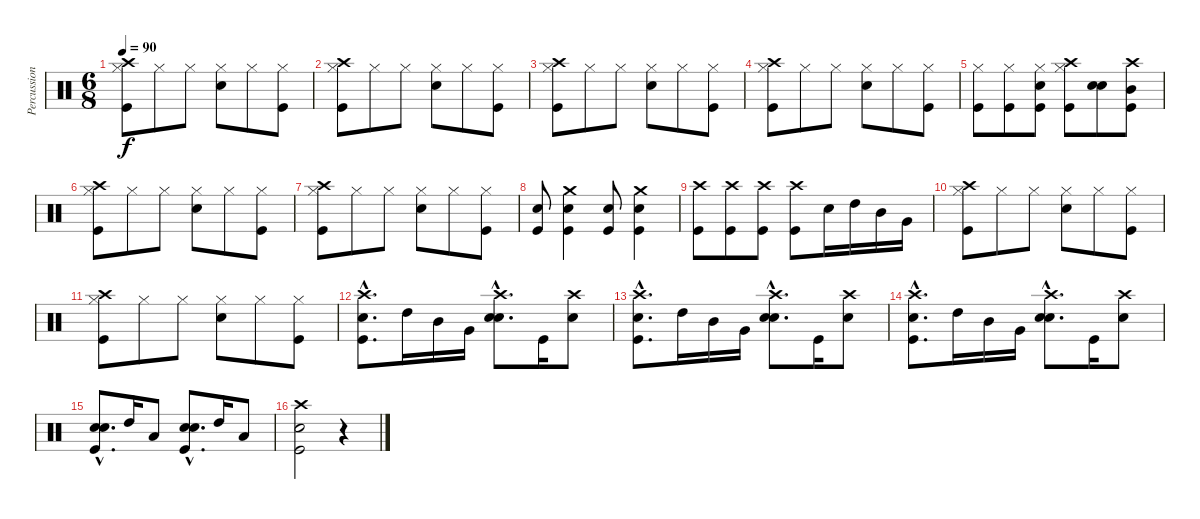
\track ("Percussioni" "Percussion") {instrument percussion}
\staff {score}
\articulation defaults
\ts (6 8)
\tempo 90
\clef neutral
\ks c
("Crash high (hit)" "Hi-Hat (closed)" "Kick (hit)").8{dy f} "Hi-Hat (closed)".8 "Hi-Hat (closed)".8 ("Hi-Hat (closed)" "Snare (hit) 2").8 "Hi-Hat (closed)".8 ("Hi-Hat (closed)" "Kick (hit)").8 |
("Crash high (hit)" "Hi-Hat (closed)" "Kick (hit)").8 "Hi-Hat (closed)".8 "Hi-Hat (closed)".8 ("Hi-Hat (closed)" "Snare (hit) 2").8 "Hi-Hat (closed)".8 ("Hi-Hat (closed)" "Kick (hit)").8 |
("Crash high (hit)" "Hi-Hat (closed)" "Kick (hit)").8 "Hi-Hat (closed)".8 "Hi-Hat (closed)".8 ("Hi-Hat (closed)" "Snare (hit) 2").8 "Hi-Hat (closed)".8 ("Hi-Hat (closed)" "Kick (hit)").8 |
("Crash high (hit)" "Hi-Hat (closed)" "Kick (hit)").8 "Hi-Hat (closed)".8 "Hi-Hat (closed)".8 ("Hi-Hat (closed)" "Snare (hit) 2").8 "Hi-Hat (closed)".8 ("Hi-Hat (closed)" "Kick (hit)").8 |
("Hi-Hat (closed)" "Kick (hit)").8 ("Hi-Hat (closed)" "Kick (hit)").8 ("Hi-Hat (closed)" "Snare (hit) 2" "Kick (hit)").8 ("Crash high (hit)" "Hi-Hat (closed)" "Kick (hit)").8 ("Snare (hit) 2" "Snare (hit) 2").8 ("Crash high (hit)" "Mid Tom (hit)" "Kick (hit)").8 |
("Crash high (hit)" "Hi-Hat (closed)" "Kick (hit)").8 "Hi-Hat (closed)".8 "Hi-Hat (closed)".8 ("Hi-Hat (closed)" "Snare (hit) 2").8 "Hi-Hat (closed)".8 ("Hi-Hat (closed)" "Kick (hit)").8 |
("Crash high (hit)" "Hi-Hat (closed)" "Kick (hit)").8 "Hi-Hat (closed)".8 "Hi-Hat (closed)".8 ("Hi-Hat (closed)" "Snare (hit) 2").8 "Hi-Hat (closed)".8 ("Hi-Hat (closed)" "Kick (hit)").8 |
("Snare (hit) 2" "Kick (hit)").8 ("Crash medium (hit)" "Snare (hit) 2" "Kick (hit)").4 ("Snare (hit) 2" "Kick (hit)").8 ("Crash medium (hit)" "Snare (hit) 2" "Kick (hit)").4 |
("Crash high (hit)" "Kick (hit)").8 ("Crash high (hit)" "Kick (hit)").8 ("Crash high (hit)" "Kick (hit)").8 ("Crash high (hit)" "Kick (hit)").8 "Snare (hit) 2".16 "High Tom (hit)".16 "Mid Tom (hit)".16 "Very Low Tom (hit)".16 |
("Crash high (hit)" "Hi-Hat (closed)" "Kick (hit)").8 "Hi-Hat (closed)".8 "Hi-Hat (closed)".8 ("Hi-Hat (closed)" "Snare (hit) 2").8 "Hi-Hat (closed)".8 ("Hi-Hat (closed)" "Kick (hit)").8 |
("Crash high (hit)" "Hi-Hat (closed)" "Kick (hit)").8 "Hi-Hat (closed)".8 "Hi-Hat (closed)".8 ("Hi-Hat (closed)" "Snare (hit) 2").8 "Hi-Hat (closed)".8 ("Hi-Hat (closed)" "Kick (hit)").8 |
("Crash high (hit)"{hac} "Snare (hit) 2"{hac} "Kick (hit)"{hac}).8{d} "High Tom (hit)".16 "Mid Tom (hit)".16 "Very Low Tom (hit)".16 ("Crash high (hit)"{hac} "Snare (hit) 2"{hac} "Snare (hit) 2"{hac}).8{d} "Kick (hit)".16 ("Crash high (hit)" "Snare (hit) 2").8 |
("Crash high (hit)"{hac} "Snare (hit) 2"{hac} "Kick (hit)"{hac}).8{d} "High Tom (hit)".16 "Mid Tom (hit)".16 "Very Low Tom (hit)".16 ("Crash high (hit)"{hac} "Snare (hit) 2"{hac} "Snare (hit) 2"{hac}).8{d} "Kick (hit)".16 ("Crash high (hit)" "Snare (hit) 2").8 |
("Crash high (hit)"{hac} "Snare (hit) 2"{hac} "Kick (hit)"{hac}).8{d} "High Tom (hit)".16 "Mid Tom (hit)".16 "Very Low Tom (hit)".16 ("Crash high (hit)"{hac} "Snare (hit) 2"{hac} "Snare (hit) 2"{hac}).8{d} "Kick (hit)".16 ("Crash high (hit)" "Snare (hit) 2").8 |
("Snare (hit) 2"{hac} "Snare (hit) 2"{hac} "Kick (hit)"{hac}).8{d} "High Tom (hit)".16 "Low Tom (hit)".8 ("Snare (hit) 2"{hac} "Snare (hit) 2"{hac} "Kick (hit)"{hac}).8{d} "High Tom (hit)".16 "Low Tom (hit)".8 |
("Crash high (hit)" "Snare (hit) 2" "Kick (hit)").2 r.4
